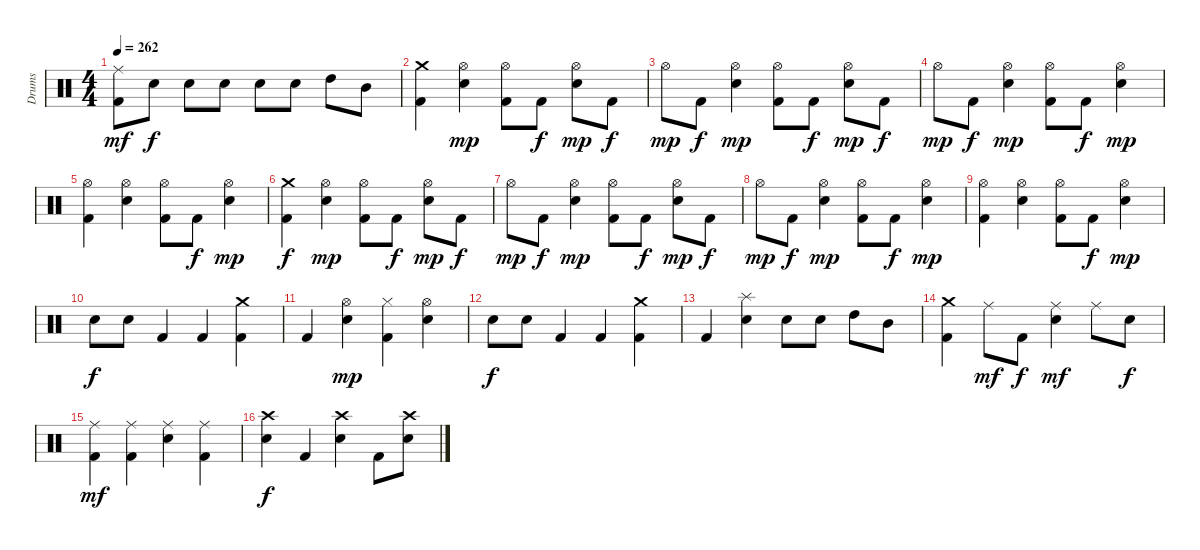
\track ("Drums" "Drums") {instrument percussion}
\staff {score}
\articulation defaults
\ts (4 4)
\tempo 262
\clef neutral
\ks c
("Ride (middle)" "Kick (hit) 2").8{dy mf} "Snare (hit) 2".8{dy f} "Snare (hit) 2".8 "Snare (hit) 2".8 "Snare (hit) 2".8 "Snare (hit) 2".8 "High Tom (hit)".8 "Mid Tom (hit)".8 |
("Crash medium (hit)" "Kick (hit) 2").4 ("Hi-Hat (open)" "Snare (hit) 2").4{dy mp} ("Hi-Hat (open)" "Kick (hit) 2").8 "Kick (hit) 2".8{dy f} ("Hi-Hat (open)" "Snare (hit) 2").8{dy mp} "Kick (hit) 2".8{dy f} |
"Hi-Hat (open)".8{dy mp} "Kick (hit) 2".8{dy f} ("Hi-Hat (open)" "Snare (hit) 2").4{dy mp} ("Hi-Hat (open)" "Kick (hit) 2").8 "Kick (hit) 2".8{dy f} ("Hi-Hat (open)" "Snare (hit) 2").8{dy mp} "Kick (hit) 2".8{dy f} |
"Hi-Hat (open)".8{dy mp} "Kick (hit) 2".8{dy f} ("Hi-Hat (open)" "Snare (hit) 2").4{dy mp} ("Hi-Hat (open)" "Kick (hit) 2").8 "Kick (hit) 2".8{dy f} ("Hi-Hat (open)" "Snare (hit) 2").4{dy mp} |
("Hi-Hat (open)" "Kick (hit) 2").4 ("Hi-Hat (open)" "Snare (hit) 2").4 ("Hi-Hat (open)" "Kick (hit) 2").8 "Kick (hit) 2".8{dy f} ("Hi-Hat (open)" "Snare (hit) 2").4{dy mp} |
("Crash medium (hit)" "Kick (hit) 2").4{dy f} ("Hi-Hat (open)" "Snare (hit) 2").4{dy mp} ("Hi-Hat (open)" "Kick (hit) 2").8 "Kick (hit) 2".8{dy f} ("Hi-Hat (open)" "Snare (hit) 2").8{dy mp} "Kick (hit) 2".8{dy f} |
"Hi-Hat (open)".8{dy mp} "Kick (hit) 2".8{dy f} ("Hi-Hat (open)" "Snare (hit) 2").4{dy mp} ("Hi-Hat (open)" "Kick (hit) 2").8 "Kick (hit) 2".8{dy f} ("Hi-Hat (open)" "Snare (hit) 2").8{dy mp} "Kick (hit) 2".8{dy f} |
"Hi-Hat (open)".8{dy mp} "Kick (hit) 2".8{dy f} ("Hi-Hat (open)" "Snare (hit) 2").4{dy mp} ("Hi-Hat (open)" "Kick (hit) 2").8 "Kick (hit) 2".8{dy f} ("Hi-Hat (open)" "Snare (hit) 2").4{dy mp} |
("Hi-Hat (open)" "Kick (hit) 2").4 ("Hi-Hat (open)" "Snare (hit) 2").4 ("Hi-Hat (open)" "Kick (hit) 2").8 "Kick (hit) 2".8{dy f} ("Hi-Hat (open)" "Snare (hit) 2").4{dy mp} |
"Snare (hit) 2".8{dy f} "Snare (hit) 2".8 "Kick (hit) 2".4 "Kick (hit) 2".4 ("Crash medium (hit)" "Kick (hit) 2").4 |
"Kick (hit) 2".4 ("Hi-Hat (open)" "Snare (hit) 2").4{dy mp} ("Hi-Hat (closed)" "Kick (hit) 2").4 ("Hi-Hat (open)" "Snare (hit) 2").4 |
"Snare (hit) 2".8{dy f} "Snare (hit) 2".8 "Kick (hit) 2".4 "Kick (hit) 2".4 ("Crash medium (hit)" "Kick (hit) 2").4 |
"Kick (hit) 2".4 ("Splash (hit)" "Snare (hit) 2").4 "Snare (hit) 2".8 "Snare (hit) 2".8 "High Tom (hit)".8 "Mid Tom (hit)".8 |
("Crash medium (hit)" "Kick (hit) 2").4 "Ride (middle)".8{dy mf} "Kick (hit) 2".8{dy f} ("Ride (middle)" "Snare (hit) 2").4{dy mf} "Ride (middle)".8 "Snare (hit) 2".8{dy f} |
("Ride (middle)" "Kick (hit) 2").4{dy mf} ("Ride (middle)" "Kick (hit) 2").4 ("Ride (middle)" "Snare (hit) 2").4 ("Ride (middle)" "Kick (hit) 2").4 |
("Crash high (hit)" "Snare (hit) 2").4{dy f} "Kick (hit) 2".4 ("Crash high (hit)" "Snare (hit) 2").4 "Kick (hit) 2".8 ("Crash high (hit)" "Snare (hit) 2").8
